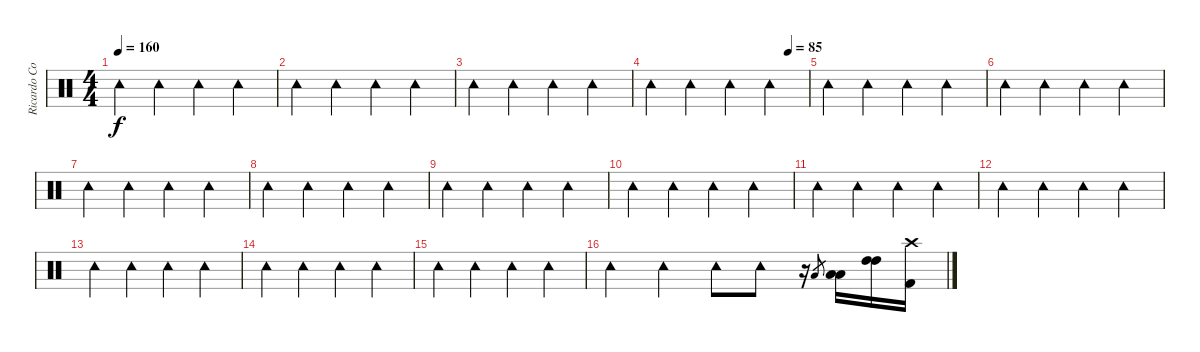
\track ("Ricardo Confessori" "Ricardo Co") {instrument percussion}
\staff {score}
\articulation defaults
\ts (4 4)
\tempo 160
\tempo 85
\tempo 160
\clef neutral
\ks c "Tambourine (hit)".4{dy f} "Tambourine (hit)".4 "Tambourine (hit)".4 "Tambourine (hit)".4
|
"Tambourine (hit)".4 "Tambourine (hit)".4 "Tambourine (hit)".4 "Tambourine (hit)".4 |
"Tambourine (hit)".4 "Tambourine (hit)".4 "Tambourine (hit)".4 "Tambourine (hit)".4 |
\tempo (85 0.875)
"Tambourine (hit)".4 "Tambourine (hit)".4 "Tambourine (hit)".4 "Tambourine (hit)".4 |
"Tambourine (hit)".4 "Tambourine (hit)".4 "Tambourine (hit)".4 "Tambourine (hit)".4 |
"Tambourine (hit)".4 "Tambourine (hit)".4 "Tambourine (hit)".4 "Tambourine (hit)".4 |
"Tambourine (hit)".4 "Tambourine (hit)".4 "Tambourine (hit)".4 "Tambourine (hit)".4 |
"Tambourine (hit)".4 "Tambourine (hit)".4 "Tambourine (hit)".4 "Tambourine (hit)".4 |
"Tambourine (hit)".4 "Tambourine (hit)".4 "Tambourine (hit)".4 "Tambourine (hit)".4 |
"Tambourine (hit)".4 "Tambourine (hit)".4 "Tambourine (hit)".4 "Tambourine (hit)".4 |
"Tambourine (hit)".4 "Tambourine (hit)".4 "Tambourine (hit)".4 "Tambourine (hit)".4 |
"Tambourine (hit)".4 "Tambourine (hit)".4 "Tambourine (hit)".4 "Tambourine (hit)".4 |
"Tambourine (hit)".4 "Tambourine (hit)".4 "Tambourine (hit)".4 "Tambourine (hit)".4 |
"Tambourine (hit)".4 "Tambourine (hit)".4 "Tambourine (hit)".4 "Tambourine (hit)".4 |
"Tambourine (hit)".4 "Tambourine (hit)".4 "Tambourine (hit)".4 "Tambourine (hit)".4 |
"Tambourine (hit)".4 "Tambourine (hit)".4 "Tambourine (hit)".8 "Tambourine (hit)".8 r.16 "Low Tom (hit)".8{gr} ("Low Tom (hit)" "Low Tom (hit)").16 ("High Tom (hit)" "High Tom (hit)").16 ("Crash high (hit)" "Kick (hit) 2").16
